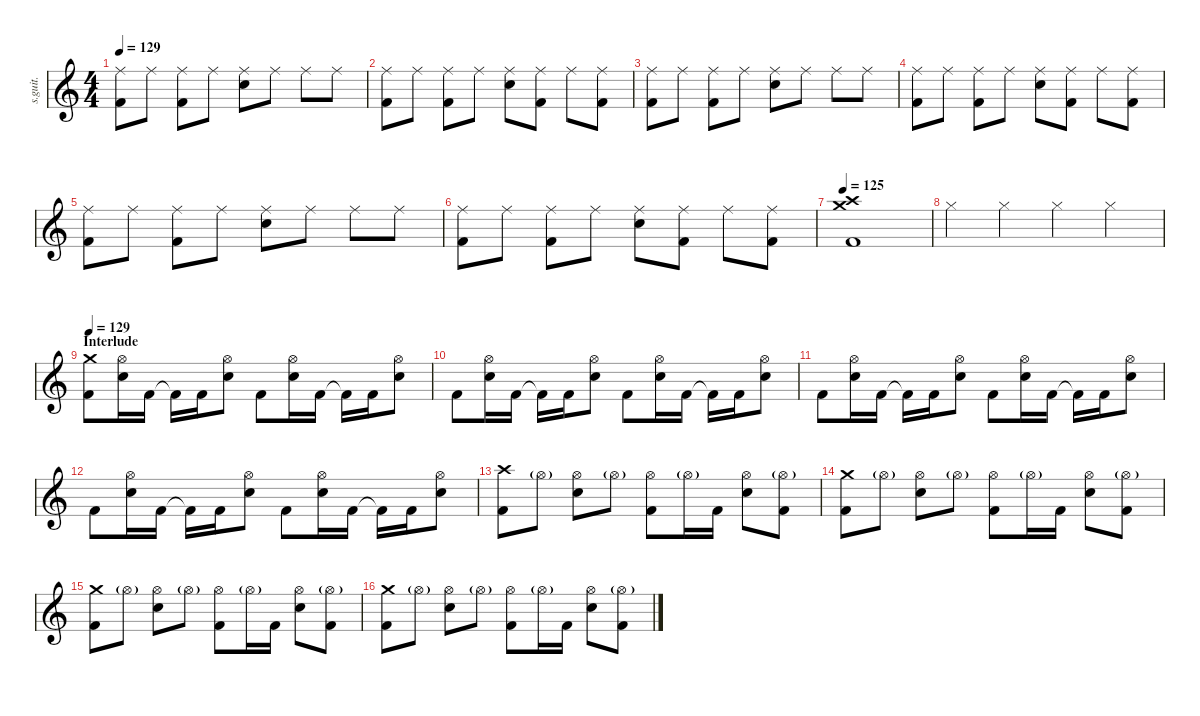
\defaultSystemsLayout 4
\hideDynamics
\bracketExtendMode nobrackets
\track ("John Dolmayan" "s.guit.") {instrument percussion}
\staff {score}
\articulation defaults
\ts (4 4)
\tempo 129
\clef g2
\ks c
("Ride (middle)" "Kick (hit) 2").8{lyrics (0 "") lyrics (1 "") lyrics (2 "") lyrics (3 "") lyrics (4 "") dy f} "Ride (middle)".8{lyrics (0 "") lyrics (1 "") lyrics (2 "") lyrics (3 "") lyrics (4 "")} ("Ride (middle)" "Kick (hit) 2").8{lyrics (0 "") lyrics (1 "") lyrics (2 "") lyrics (3 "") lyrics (4 "")} "Ride (middle)".8{lyrics (0 "") lyrics (1 "") lyrics (2 "") lyrics (3 "") lyrics (4 "")} ("Ride (middle)" "Snare (hit) 2").8{lyrics (0 "") lyrics (1 "") lyrics (2 "") lyrics (3 "") lyrics (4 "")} "Ride (middle)".8{lyrics (0 "") lyrics (1 "") lyrics (2 "") lyrics (3 "") lyrics (4 "")} "Ride (middle)".8{lyrics (0 "") lyrics (1 "") lyrics (2 "") lyrics (3 "") lyrics (4 "")} "Ride (middle)".8{lyrics (0 "") lyrics (1 "") lyrics (2 "") lyrics (3 "") lyrics (4 "")} |
("Ride (middle)" "Kick (hit) 2").8{lyrics (0 "") lyrics (1 "") lyrics (2 "") lyrics (3 "") lyrics (4 "")} "Ride (middle)".8{lyrics (0 "") lyrics (1 "") lyrics (2 "") lyrics (3 "") lyrics (4 "")} ("Ride (middle)" "Kick (hit) 2").8{lyrics (0 "") lyrics (1 "") lyrics (2 "") lyrics (3 "") lyrics (4 "")} "Ride (middle)".8{lyrics (0 "") lyrics (1 "") lyrics (2 "") lyrics (3 "") lyrics (4 "")} ("Ride (middle)" "Snare (hit) 2").8{lyrics (0 "") lyrics (1 "") lyrics (2 "") lyrics (3 "") lyrics (4 "")} ("Ride (middle)" "Kick (hit) 2").8{lyrics (0 "") lyrics (1 "") lyrics (2 "") lyrics (3 "") lyrics (4 "")} "Ride (middle)".8{lyrics (0 "") lyrics (1 "") lyrics (2 "") lyrics (3 "") lyrics (4 "")} ("Ride (middle)" "Kick (hit) 2").8{lyrics (0 "") lyrics (1 "") lyrics (2 "") lyrics (3 "") lyrics (4 "")} |
("Ride (middle)" "Kick (hit) 2").8{lyrics (0 "") lyrics (1 "") lyrics (2 "") lyrics (3 "") lyrics (4 "")} "Ride (middle)".8{lyrics (0 "") lyrics (1 "") lyrics (2 "") lyrics (3 "") lyrics (4 "")} ("Ride (middle)" "Kick (hit) 2").8{lyrics (0 "") lyrics (1 "") lyrics (2 "") lyrics (3 "") lyrics (4 "")} "Ride (middle)".8{lyrics (0 "") lyrics (1 "") lyrics (2 "") lyrics (3 "") lyrics (4 "")} ("Ride (middle)" "Snare (hit) 2").8{lyrics (0 "") lyrics (1 "") lyrics (2 "") lyrics (3 "") lyrics (4 "")} "Ride (middle)".8{lyrics (0 "") lyrics (1 "") lyrics (2 "") lyrics (3 "") lyrics (4 "")} "Ride (middle)".8{lyrics (0 "") lyrics (1 "") lyrics (2 "") lyrics (3 "") lyrics (4 "")} "Ride (middle)".8{lyrics (0 "") lyrics (1 "") lyrics (2 "") lyrics (3 "") lyrics (4 "")} |
("Ride (middle)" "Kick (hit) 2").8{lyrics (0 "") lyrics (1 "") lyrics (2 "") lyrics (3 "") lyrics (4 "")} "Ride (middle)".8{lyrics (0 "") lyrics (1 "") lyrics (2 "") lyrics (3 "") lyrics (4 "")} ("Ride (middle)" "Kick (hit) 2").8{lyrics (0 "") lyrics (1 "") lyrics (2 "") lyrics (3 "") lyrics (4 "")} "Ride (middle)".8{lyrics (0 "") lyrics (1 "") lyrics (2 "") lyrics (3 "") lyrics (4 "")} ("Ride (middle)" "Snare (hit) 2").8{lyrics (0 "") lyrics (1 "") lyrics (2 "") lyrics (3 "") lyrics (4 "")} ("Ride (middle)" "Kick (hit) 2").8{lyrics (0 "") lyrics (1 "") lyrics (2 "") lyrics (3 "") lyrics (4 "")} "Ride (middle)".8{lyrics (0 "") lyrics (1 "") lyrics (2 "") lyrics (3 "") lyrics (4 "")} ("Ride (middle)" "Kick (hit) 2").8{lyrics (0 "") lyrics (1 "") lyrics (2 "") lyrics (3 "") lyrics (4 "")} |
("Ride (middle)" "Kick (hit) 2").8{lyrics (0 "") lyrics (1 "") lyrics (2 "") lyrics (3 "") lyrics (4 "")} "Ride (middle)".8{lyrics (0 "") lyrics (1 "") lyrics (2 "") lyrics (3 "") lyrics (4 "")} ("Ride (middle)" "Kick (hit) 2").8{lyrics (0 "") lyrics (1 "") lyrics (2 "") lyrics (3 "") lyrics (4 "")} "Ride (middle)".8{lyrics (0 "") lyrics (1 "") lyrics (2 "") lyrics (3 "") lyrics (4 "")} ("Ride (middle)" "Snare (hit) 2").8{lyrics (0 "") lyrics (1 "") lyrics (2 "") lyrics (3 "") lyrics (4 "")} "Ride (middle)".8{lyrics (0 "") lyrics (1 "") lyrics (2 "") lyrics (3 "") lyrics (4 "")} "Ride (middle)".8{lyrics (0 "") lyrics (1 "") lyrics (2 "") lyrics (3 "") lyrics (4 "")} "Ride (middle)".8{lyrics (0 "") lyrics (1 "") lyrics (2 "") lyrics (3 "") lyrics (4 "")} |
("Ride (middle)" "Kick (hit) 2").8{lyrics (0 "") lyrics (1 "") lyrics (2 "") lyrics (3 "") lyrics (4 "")} "Ride (middle)".8{lyrics (0 "") lyrics (1 "") lyrics (2 "") lyrics (3 "") lyrics (4 "")} ("Ride (middle)" "Kick (hit) 2").8{lyrics (0 "") lyrics (1 "") lyrics (2 "") lyrics (3 "") lyrics (4 "")} "Ride (middle)".8{lyrics (0 "") lyrics (1 "") lyrics (2 "") lyrics (3 "") lyrics (4 "")} ("Ride (middle)" "Snare (hit) 2").8{lyrics (0 "") lyrics (1 "") lyrics (2 "") lyrics (3 "") lyrics (4 "")} ("Ride (middle)" "Kick (hit) 2").8{lyrics (0 "") lyrics (1 "") lyrics (2 "") lyrics (3 "") lyrics (4 "")} "Ride (middle)".8{lyrics (0 "") lyrics (1 "") lyrics (2 "") lyrics (3 "") lyrics (4 "")} ("Ride (middle)" "Kick (hit) 2").8{lyrics (0 "") lyrics (1 "") lyrics (2 "") lyrics (3 "") lyrics (4 "")} |
\tempo 125
("Crash medium (hit)" "Crash high (hit)" "Kick (hit) 2").1{lyrics (0 "") lyrics (1 "") lyrics (2 "") lyrics (3 "") lyrics (4 "")} |
"Hi-Hat (closed)".4{lyrics (0 "") lyrics (1 "") lyrics (2 "") lyrics (3 "") lyrics (4 "")} "Hi-Hat (closed)".4{lyrics (0 "") lyrics (1 "") lyrics (2 "") lyrics (3 "") lyrics (4 "")} "Hi-Hat (closed)".4{lyrics (0 "") lyrics (1 "") lyrics (2 "") lyrics (3 "") lyrics (4 "")} "Hi-Hat (closed)".4{lyrics (0 "") lyrics (1 "") lyrics (2 "") lyrics (3 "") lyrics (4 "")} |
\section ("" "Interlude")
\tempo 129
("Crash medium (hit)" "Kick (hit) 2").8{lyrics (0 "") lyrics (1 "") lyrics (2 "") lyrics (3 "") lyrics (4 "")} ("Hi-Hat (open)" "Snare (hit) 2").16{lyrics (0 "") lyrics (1 "") lyrics (2 "") lyrics (3 "") lyrics (4 "")} "Kick (hit) 2".16{lyrics (0 "") lyrics (1 "") lyrics (2 "") lyrics (3 "") lyrics (4 "")} "Kick (hit) 2"{t}.16{lyrics (0 "") lyrics (1 "") lyrics (2 "") lyrics (3 "") lyrics (4 "")} "Kick (hit) 2".16{lyrics (0 "") lyrics (1 "") lyrics (2 "") lyrics (3 "") lyrics (4 "")} ("Hi-Hat (open)" "Snare (hit) 2").8{lyrics (0 "") lyrics (1 "") lyrics (2 "") lyrics (3 "") lyrics (4 "")} "Kick (hit) 2".8{lyrics (0 "") lyrics (1 "") lyrics (2 "") lyrics (3 "") lyrics (4 "")} ("Hi-Hat (open)" "Snare (hit) 2").16{lyrics (0 "") lyrics (1 "") lyrics (2 "") lyrics (3 "") lyrics (4 "")} "Kick (hit) 2".16{lyrics (0 "") lyrics (1 "") lyrics (2 "") lyrics (3 "") lyrics (4 "")} "Kick (hit) 2"{t}.16{lyrics (0 "") lyrics (1 "") lyrics (2 "") lyrics (3 "") lyrics (4 "")} "Kick (hit) 2".16{lyrics (0 "") lyrics (1 "") lyrics (2 "") lyrics (3 "") lyrics (4 "")} ("Hi-Hat (open)" "Snare (hit) 2").8{lyrics (0 "") lyrics (1 "") lyrics (2 "") lyrics (3 "") lyrics (4 "")} |
"Kick (hit) 2".8{lyrics (0 "") lyrics (1 "") lyrics (2 "") lyrics (3 "") lyrics (4 "")} ("Hi-Hat (open)" "Snare (hit) 2").16{lyrics (0 "") lyrics (1 "") lyrics (2 "") lyrics (3 "") lyrics (4 "")} "Kick (hit) 2".16{lyrics (0 "") lyrics (1 "") lyrics (2 "") lyrics (3 "") lyrics (4 "")} "Kick (hit) 2"{t}.16{lyrics (0 "") lyrics (1 "") lyrics (2 "") lyrics (3 "") lyrics (4 "")} "Kick (hit) 2".16{lyrics (0 "") lyrics (1 "") lyrics (2 "") lyrics (3 "") lyrics (4 "")} ("Hi-Hat (open)" "Snare (hit) 2").8{lyrics (0 "") lyrics (1 "") lyrics (2 "") lyrics (3 "") lyrics (4 "")} "Kick (hit) 2".8{lyrics (0 "") lyrics (1 "") lyrics (2 "") lyrics (3 "") lyrics (4 "")} ("Hi-Hat (open)" "Snare (hit) 2").16{lyrics (0 "") lyrics (1 "") lyrics (2 "") lyrics (3 "") lyrics (4 "")} "Kick (hit) 2".16{lyrics (0 "") lyrics (1 "") lyrics (2 "") lyrics (3 "") lyrics (4 "")} "Kick (hit) 2"{t}.16{lyrics (0 "") lyrics (1 "") lyrics (2 "") lyrics (3 "") lyrics (4 "")} "Kick (hit) 2".16{lyrics (0 "") lyrics (1 "") lyrics (2 "") lyrics (3 "") lyrics (4 "")} ("Hi-Hat (open)" "Snare (hit) 2").8{lyrics (0 "") lyrics (1 "") lyrics (2 "") lyrics (3 "") lyrics (4 "")} |
"Kick (hit) 2".8{lyrics (0 "") lyrics (1 "") lyrics (2 "") lyrics (3 "") lyrics (4 "")} ("Hi-Hat (open)" "Snare (hit) 2").16{lyrics (0 "") lyrics (1 "") lyrics (2 "") lyrics (3 "") lyrics (4 "")} "Kick (hit) 2".16{lyrics (0 "") lyrics (1 "") lyrics (2 "") lyrics (3 "") lyrics (4 "")} "Kick (hit) 2"{t}.16{lyrics (0 "") lyrics (1 "") lyrics (2 "") lyrics (3 "") lyrics (4 "")} "Kick (hit) 2".16{lyrics (0 "") lyrics (1 "") lyrics (2 "") lyrics (3 "") lyrics (4 "")} ("Hi-Hat (open)" "Snare (hit) 2").8{lyrics (0 "") lyrics (1 "") lyrics (2 "") lyrics (3 "") lyrics (4 "")} "Kick (hit) 2".8{lyrics (0 "") lyrics (1 "") lyrics (2 "") lyrics (3 "") lyrics (4 "")} ("Hi-Hat (open)" "Snare (hit) 2").16{lyrics (0 "") lyrics (1 "") lyrics (2 "") lyrics (3 "") lyrics (4 "")} "Kick (hit) 2".16{lyrics (0 "") lyrics (1 "") lyrics (2 "") lyrics (3 "") lyrics (4 "")} "Kick (hit) 2"{t}.16{lyrics (0 "") lyrics (1 "") lyrics (2 "") lyrics (3 "") lyrics (4 "")} "Kick (hit) 2".16{lyrics (0 "") lyrics (1 "") lyrics (2 "") lyrics (3 "") lyrics (4 "")} ("Hi-Hat (open)" "Snare (hit) 2").8{lyrics (0 "") lyrics (1 "") lyrics (2 "") lyrics (3 "") lyrics (4 "")} |
"Kick (hit) 2".8{lyrics (0 "") lyrics (1 "") lyrics (2 "") lyrics (3 "") lyrics (4 "")} ("Hi-Hat (open)" "Snare (hit) 2").16{lyrics (0 "") lyrics (1 "") lyrics (2 "") lyrics (3 "") lyrics (4 "")} "Kick (hit) 2".16{lyrics (0 "") lyrics (1 "") lyrics (2 "") lyrics (3 "") lyrics (4 "")} "Kick (hit) 2"{t}.16{lyrics (0 "") lyrics (1 "") lyrics (2 "") lyrics (3 "") lyrics (4 "")} "Kick (hit) 2".16{lyrics (0 "") lyrics (1 "") lyrics (2 "") lyrics (3 "") lyrics (4 "")} ("Hi-Hat (open)" "Snare (hit) 2").8{lyrics (0 "") lyrics (1 "") lyrics (2 "") lyrics (3 "") lyrics (4 "")} "Kick (hit) 2".8{lyrics (0 "") lyrics (1 "") lyrics (2 "") lyrics (3 "") lyrics (4 "")} ("Hi-Hat (open)" "Snare (hit) 2").16{lyrics (0 "") lyrics (1 "") lyrics (2 "") lyrics (3 "") lyrics (4 "")} "Kick (hit) 2".16{lyrics (0 "") lyrics (1 "") lyrics (2 "") lyrics (3 "") lyrics (4 "")} "Kick (hit) 2"{t}.16{lyrics (0 "") lyrics (1 "") lyrics (2 "") lyrics (3 "") lyrics (4 "")} "Kick (hit) 2".16{lyrics (0 "") lyrics (1 "") lyrics (2 "") lyrics (3 "") lyrics (4 "")} ("Hi-Hat (open)" "Snare (hit) 2").8{lyrics (0 "") lyrics (1 "") lyrics (2 "") lyrics (3 "") lyrics (4 "")} |
("Crash high (hit)" "Kick (hit) 2").8{lyrics (0 "") lyrics (1 "") lyrics (2 "") lyrics (3 "") lyrics (4 "")} "Hi-Hat (open)"{g}.8{lyrics (0 "") lyrics (1 "") lyrics (2 "") lyrics (3 "") lyrics (4 "") dy ff} ("Hi-Hat (open)" "Snare (hit) 2").8{lyrics (0 "") lyrics (1 "") lyrics (2 "") lyrics (3 "") lyrics (4 "")} "Hi-Hat (open)"{g}.8{lyrics (0 "") lyrics (1 "") lyrics (2 "") lyrics (3 "") lyrics (4 "")} ("Hi-Hat (open)" "Kick (hit) 2").8{lyrics (0 "") lyrics (1 "") lyrics (2 "") lyrics (3 "") lyrics (4 "")} "Hi-Hat (open)"{g}.16{lyrics (0 "") lyrics (1 "") lyrics (2 "") lyrics (3 "") lyrics (4 "")} "Kick (hit) 2".16{lyrics (0 "") lyrics (1 "") lyrics (2 "") lyrics (3 "") lyrics (4 "") dy f} ("Hi-Hat (open)" "Snare (hit) 2").8{lyrics (0 "") lyrics (1 "") lyrics (2 "") lyrics (3 "") lyrics (4 "") dy ff} ("Hi-Hat (open)"{g} "Kick (hit) 2").8{lyrics (0 "") lyrics (1 "") lyrics (2 "") lyrics (3 "") lyrics (4 "") dy f} |
("Crash medium (hit)" "Kick (hit) 2").8{lyrics (0 "") lyrics (1 "") lyrics (2 "") lyrics (3 "") lyrics (4 "")} "Hi-Hat (open)"{g}.8{lyrics (0 "") lyrics (1 "") lyrics (2 "") lyrics (3 "") lyrics (4 "") dy ff} ("Hi-Hat (open)" "Snare (hit) 2").8{lyrics (0 "") lyrics (1 "") lyrics (2 "") lyrics (3 "") lyrics (4 "")} "Hi-Hat (open)"{g}.8{lyrics (0 "") lyrics (1 "") lyrics (2 "") lyrics (3 "") lyrics (4 "")} ("Hi-Hat (open)" "Kick (hit) 2").8{lyrics (0 "") lyrics (1 "") lyrics (2 "") lyrics (3 "") lyrics (4 "")} "Hi-Hat (open)"{g}.16{lyrics (0 "") lyrics (1 "") lyrics (2 "") lyrics (3 "") lyrics (4 "")} "Kick (hit) 2".16{lyrics (0 "") lyrics (1 "") lyrics (2 "") lyrics (3 "") lyrics (4 "") dy f} ("Hi-Hat (open)" "Snare (hit) 2").8{lyrics (0 "") lyrics (1 "") lyrics (2 "") lyrics (3 "") lyrics (4 "") dy ff} ("Hi-Hat (open)"{g} "Kick (hit) 2").8{lyrics (0 "") lyrics (1 "") lyrics (2 "") lyrics (3 "") lyrics (4 "") dy f} |
("Crash medium (hit)" "Kick (hit) 2").8{lyrics (0 "") lyrics (1 "") lyrics (2 "") lyrics (3 "") lyrics (4 "")} "Hi-Hat (open)"{g}.8{lyrics (0 "") lyrics (1 "") lyrics (2 "") lyrics (3 "") lyrics (4 "") dy ff} ("Hi-Hat (open)" "Snare (hit) 2").8{lyrics (0 "") lyrics (1 "") lyrics (2 "") lyrics (3 "") lyrics (4 "")} "Hi-Hat (open)"{g}.8{lyrics (0 "") lyrics (1 "") lyrics (2 "") lyrics (3 "") lyrics (4 "")} ("Hi-Hat (open)" "Kick (hit) 2").8{lyrics (0 "") lyrics (1 "") lyrics (2 "") lyrics (3 "") lyrics (4 "")} "Hi-Hat (open)"{g}.16{lyrics (0 "") lyrics (1 "") lyrics (2 "") lyrics (3 "") lyrics (4 "")} "Kick (hit) 2".16{lyrics (0 "") lyrics (1 "") lyrics (2 "") lyrics (3 "") lyrics (4 "") dy f} ("Hi-Hat (open)" "Snare (hit) 2").8{lyrics (0 "") lyrics (1 "") lyrics (2 "") lyrics (3 "") lyrics (4 "") dy ff} ("Hi-Hat (open)"{g} "Kick (hit) 2").8{lyrics (0 "") lyrics (1 "") lyrics (2 "") lyrics (3 "") lyrics (4 "") dy f} |
("Crash medium (hit)" "Kick (hit) 2").8{lyrics (0 "") lyrics (1 "") lyrics (2 "") lyrics (3 "") lyrics (4 "")} "Hi-Hat (open)"{g}.8{lyrics (0 "") lyrics (1 "") lyrics (2 "") lyrics (3 "") lyrics (4 "") dy ff} ("Hi-Hat (open)" "Snare (hit) 2").8{lyrics (0 "") lyrics (1 "") lyrics (2 "") lyrics (3 "") lyrics (4 "")} "Hi-Hat (open)"{g}.8{lyrics (0 "") lyrics (1 "") lyrics (2 "") lyrics (3 "") lyrics (4 "")} ("Hi-Hat (open)" "Kick (hit) 2").8{lyrics (0 "") lyrics (1 "") lyrics (2 "") lyrics (3 "") lyrics (4 "")} "Hi-Hat (open)"{g}.16{lyrics (0 "") lyrics (1 "") lyrics (2 "") lyrics (3 "") lyrics (4 "")} "Kick (hit) 2".16{lyrics (0 "") lyrics (1 "") lyrics (2 "") lyrics (3 "") lyrics (4 "") dy f} ("Hi-Hat (open)" "Snare (hit) 2").8{lyrics (0 "") lyrics (1 "") lyrics (2 "") lyrics (3 "") lyrics (4 "") dy ff} ("Hi-Hat (open)"{g} "Kick (hit) 2").8{lyrics (0 "") lyrics (1 "") lyrics (2 "") lyrics (3 "") lyrics (4 "") dy f}
